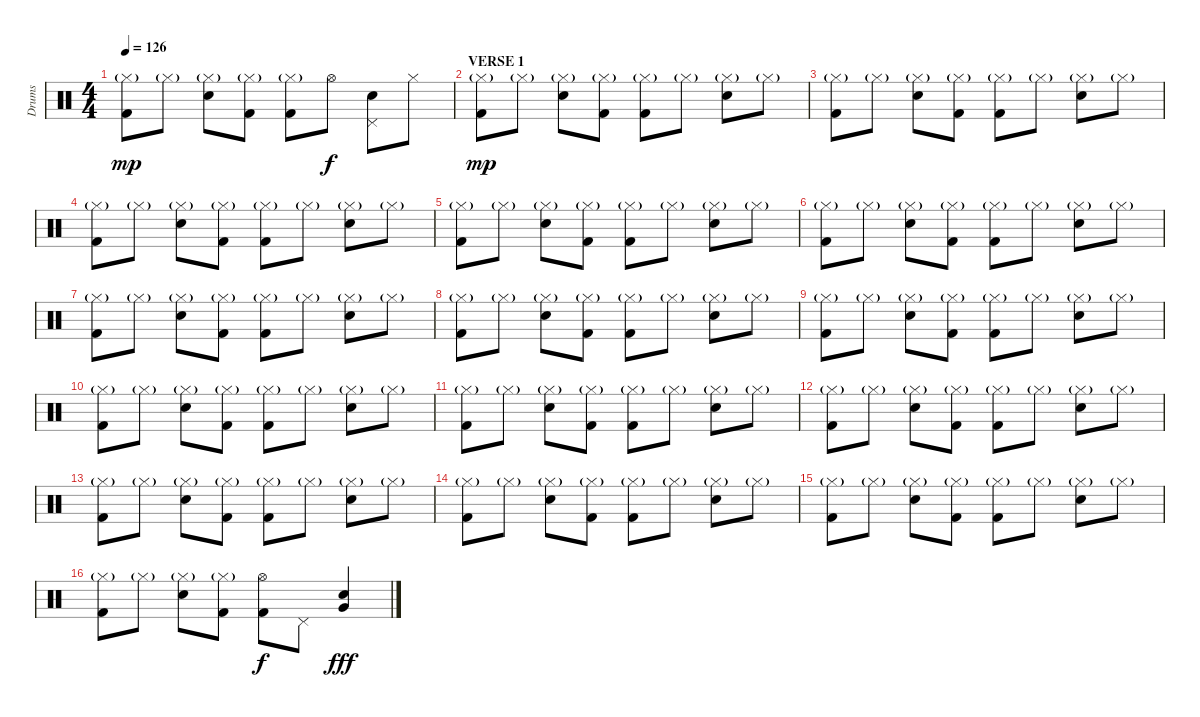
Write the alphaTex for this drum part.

\track ("Drums" "Drums") {instrument percussion}
\staff {score}
\articulation defaults
\ts (4 4)
\tempo 126
\clef neutral
\ks c
("Hi-Hat (closed)"{g} "Kick (hit) 2").8{dy mp} "Hi-Hat (closed)"{g}.8 ("Hi-Hat (closed)"{g} "Snare (hit) 2").8 ("Hi-Hat (closed)"{g} "Kick (hit) 2").8 ("Hi-Hat (closed)"{g} "Kick (hit) 2").8 "Hi-Hat (open)".8{dy f} ("Pedal Hi-Hat (hit)" "Snare (hit) 2").8 "Hi-Hat (closed)".8 |
\section ("" "VERSE 1")
("Hi-Hat (closed)"{g} "Kick (hit) 2").8{dy mp} "Hi-Hat (closed)"{g}.8 ("Hi-Hat (closed)"{g} "Snare (hit) 2").8 ("Hi-Hat (closed)"{g} "Kick (hit) 2").8 ("Hi-Hat (closed)"{g} "Kick (hit) 2").8 "Hi-Hat (closed)"{g}.8 ("Hi-Hat (closed)"{g} "Snare (hit) 2").8 "Hi-Hat (closed)"{g}.8 |
("Hi-Hat (closed)"{g} "Kick (hit) 2").8 "Hi-Hat (closed)"{g}.8 ("Hi-Hat (closed)"{g} "Snare (hit) 2").8 ("Hi-Hat (closed)"{g} "Kick (hit) 2").8 ("Hi-Hat (closed)"{g} "Kick (hit) 2").8 "Hi-Hat (closed)"{g}.8 ("Hi-Hat (closed)"{g} "Snare (hit) 2").8 "Hi-Hat (closed)"{g}.8 |
("Hi-Hat (closed)"{g} "Kick (hit) 2").8 "Hi-Hat (closed)"{g}.8 ("Hi-Hat (closed)"{g} "Snare (hit) 2").8 ("Hi-Hat (closed)"{g} "Kick (hit) 2").8 ("Hi-Hat (closed)"{g} "Kick (hit) 2").8 "Hi-Hat (closed)"{g}.8 ("Hi-Hat (closed)"{g} "Snare (hit) 2").8 "Hi-Hat (closed)"{g}.8 |
("Hi-Hat (closed)"{g} "Kick (hit) 2").8 "Hi-Hat (closed)"{g}.8 ("Hi-Hat (closed)"{g} "Snare (hit) 2").8 ("Hi-Hat (closed)"{g} "Kick (hit) 2").8 ("Hi-Hat (closed)"{g} "Kick (hit) 2").8 "Hi-Hat (closed)"{g}.8 ("Hi-Hat (closed)"{g} "Snare (hit) 2").8 "Hi-Hat (closed)"{g}.8 |
("Hi-Hat (closed)"{g} "Kick (hit) 2").8 "Hi-Hat (closed)"{g}.8 ("Hi-Hat (closed)"{g} "Snare (hit) 2").8 ("Hi-Hat (closed)"{g} "Kick (hit) 2").8 ("Hi-Hat (closed)"{g} "Kick (hit) 2").8 "Hi-Hat (closed)"{g}.8 ("Hi-Hat (closed)"{g} "Snare (hit) 2").8 "Hi-Hat (closed)"{g}.8 |
("Hi-Hat (closed)"{g} "Kick (hit) 2").8 "Hi-Hat (closed)"{g}.8 ("Hi-Hat (closed)"{g} "Snare (hit) 2").8 ("Hi-Hat (closed)"{g} "Kick (hit) 2").8 ("Hi-Hat (closed)"{g} "Kick (hit) 2").8 "Hi-Hat (closed)"{g}.8 ("Hi-Hat (closed)"{g} "Snare (hit) 2").8 "Hi-Hat (closed)"{g}.8 |
("Hi-Hat (closed)"{g} "Kick (hit) 2").8 "Hi-Hat (closed)"{g}.8 ("Hi-Hat (closed)"{g} "Snare (hit) 2").8 ("Hi-Hat (closed)"{g} "Kick (hit) 2").8 ("Hi-Hat (closed)"{g} "Kick (hit) 2").8 "Hi-Hat (closed)"{g}.8 ("Hi-Hat (closed)"{g} "Snare (hit) 2").8 "Hi-Hat (closed)"{g}.8 |
("Hi-Hat (closed)"{g} "Kick (hit) 2").8 "Hi-Hat (closed)"{g}.8 ("Hi-Hat (closed)"{g} "Snare (hit) 2").8 ("Hi-Hat (closed)"{g} "Kick (hit) 2").8 ("Hi-Hat (closed)"{g} "Kick (hit) 2").8 "Hi-Hat (closed)"{g}.8 ("Hi-Hat (closed)"{g} "Snare (hit) 2").8 "Hi-Hat (closed)"{g}.8 |
("Hi-Hat (closed)"{g} "Kick (hit) 2").8 "Hi-Hat (closed)"{g}.8 ("Hi-Hat (closed)"{g} "Snare (hit) 2").8 ("Hi-Hat (closed)"{g} "Kick (hit) 2").8 ("Hi-Hat (closed)"{g} "Kick (hit) 2").8 "Hi-Hat (closed)"{g}.8 ("Hi-Hat (closed)"{g} "Snare (hit) 2").8 "Hi-Hat (closed)"{g}.8 |
("Hi-Hat (closed)"{g} "Kick (hit) 2").8 "Hi-Hat (closed)"{g}.8 ("Hi-Hat (closed)"{g} "Snare (hit) 2").8 ("Hi-Hat (closed)"{g} "Kick (hit) 2").8 ("Hi-Hat (closed)"{g} "Kick (hit) 2").8 "Hi-Hat (closed)"{g}.8 ("Hi-Hat (closed)"{g} "Snare (hit) 2").8 "Hi-Hat (closed)"{g}.8 |
("Hi-Hat (closed)"{g} "Kick (hit) 2").8 "Hi-Hat (closed)"{g}.8 ("Hi-Hat (closed)"{g} "Snare (hit) 2").8 ("Hi-Hat (closed)"{g} "Kick (hit) 2").8 ("Hi-Hat (closed)"{g} "Kick (hit) 2").8 "Hi-Hat (closed)"{g}.8 ("Hi-Hat (closed)"{g} "Snare (hit) 2").8 "Hi-Hat (closed)"{g}.8 |
("Hi-Hat (closed)"{g} "Kick (hit) 2").8 "Hi-Hat (closed)"{g}.8 ("Hi-Hat (closed)"{g} "Snare (hit) 2").8 ("Hi-Hat (closed)"{g} "Kick (hit) 2").8 ("Hi-Hat (closed)"{g} "Kick (hit) 2").8 "Hi-Hat (closed)"{g}.8 ("Hi-Hat (closed)"{g} "Snare (hit) 2").8 "Hi-Hat (closed)"{g}.8 |
("Hi-Hat (closed)"{g} "Kick (hit) 2").8 "Hi-Hat (closed)"{g}.8 ("Hi-Hat (closed)"{g} "Snare (hit) 2").8 ("Hi-Hat (closed)"{g} "Kick (hit) 2").8 ("Hi-Hat (closed)"{g} "Kick (hit) 2").8 "Hi-Hat (closed)"{g}.8 ("Hi-Hat (closed)"{g} "Snare (hit) 2").8 "Hi-Hat (closed)"{g}.8 |
("Hi-Hat (closed)"{g} "Kick (hit) 2").8 "Hi-Hat (closed)"{g}.8 ("Hi-Hat (closed)"{g} "Snare (hit) 2").8 ("Hi-Hat (closed)"{g} "Kick (hit) 2").8 ("Hi-Hat (closed)"{g} "Kick (hit) 2").8 "Hi-Hat (closed)"{g}.8 ("Hi-Hat (closed)"{g} "Snare (hit) 2").8 "Hi-Hat (closed)"{g}.8 |
("Hi-Hat (closed)"{g} "Kick (hit) 2").8 "Hi-Hat (closed)"{g}.8 ("Hi-Hat (closed)"{g} "Snare (hit) 2").8 ("Hi-Hat (closed)"{g} "Kick (hit) 2").8 ("Hi-Hat (open)" "Kick (hit) 2").8{dy f} "Pedal Hi-Hat (hit)".8 ("Snare (hit) 2" "Very Low Tom (hit)").4{dy fff}
